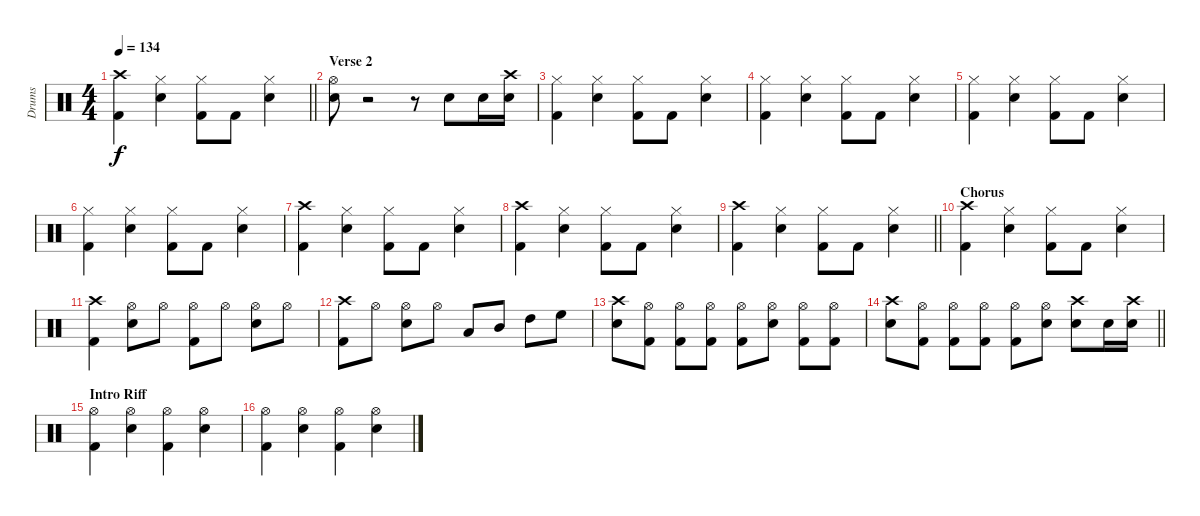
\track ("Drums" "Drums") {instrument percussion}
\staff {score}
\articulation defaults
\ts (4 4)
\tempo 134
\clef neutral
\barLineRight lightlight
\ks c
("Crash high (hit)" "Kick (hit) 2").4{dy f} ("Hi-Hat (closed)" "Snare (hit) 2").4 ("Hi-Hat (closed)" "Kick (hit) 2").8 "Kick (hit) 2".8 ("Hi-Hat (closed)" "Snare (hit) 2").4 |
\section ("" "Verse 2")
("Hi-Hat (open)" "Snare (hit) 2").8 r.2 r.8 "Snare (hit) 2".8 "Snare (hit) 2".16 ("Crash high (hit)" "Snare (hit) 2").16 |
("Hi-Hat (closed)" "Kick (hit) 2").4 ("Hi-Hat (closed)" "Snare (hit) 2").4 ("Hi-Hat (closed)" "Kick (hit) 2").8 "Kick (hit) 2".8 ("Hi-Hat (closed)" "Snare (hit) 2").4 |
("Hi-Hat (closed)" "Kick (hit) 2").4 ("Hi-Hat (closed)" "Snare (hit) 2").4 ("Hi-Hat (closed)" "Kick (hit) 2").8 "Kick (hit) 2".8 ("Hi-Hat (closed)" "Snare (hit) 2").4 |
("Hi-Hat (closed)" "Kick (hit) 2").4 ("Hi-Hat (closed)" "Snare (hit) 2").4 ("Hi-Hat (closed)" "Kick (hit) 2").8 "Kick (hit) 2".8 ("Hi-Hat (closed)" "Snare (hit) 2").4 |
("Hi-Hat (closed)" "Kick (hit) 2").4 ("Hi-Hat (closed)" "Snare (hit) 2").4 ("Hi-Hat (closed)" "Kick (hit) 2").8 "Kick (hit) 2".8 ("Hi-Hat (closed)" "Snare (hit) 2").4 |
("Crash high (hit)" "Kick (hit) 2").4 ("Hi-Hat (closed)" "Snare (hit) 2").4 ("Hi-Hat (closed)" "Kick (hit) 2").8 "Kick (hit) 2".8 ("Hi-Hat (closed)" "Snare (hit) 2").4 |
("Crash high (hit)" "Kick (hit) 2").4 ("Hi-Hat (closed)" "Snare (hit) 2").4 ("Hi-Hat (closed)" "Kick (hit) 2").8 "Kick (hit) 2".8 ("Hi-Hat (closed)" "Snare (hit) 2").4 |
\barLineRight lightlight
("Crash high (hit)" "Kick (hit) 2").4 ("Hi-Hat (closed)" "Snare (hit) 2").4 ("Hi-Hat (closed)" "Kick (hit) 2").8 "Kick (hit) 2".8 ("Hi-Hat (closed)" "Snare (hit) 2").4 |
\section ("" "Chorus")
("Crash high (hit)" "Kick (hit) 2").4 ("Hi-Hat (closed)" "Snare (hit) 2").4 ("Hi-Hat (closed)" "Kick (hit) 2").8 "Kick (hit) 2".8 ("Hi-Hat (closed)" "Snare (hit) 2").4 |
("Crash high (hit)" "Kick (hit) 2").4 ("Hi-Hat (open)" "Snare (hit) 2").8 "Hi-Hat (open)".8 ("Hi-Hat (open)" "Kick (hit) 2").8 "Hi-Hat (open)".8 ("Hi-Hat (open)" "Snare (hit) 2").8 "Hi-Hat (open)".8 |
("Crash high (hit)" "Kick (hit) 2").8 "Hi-Hat (open)".8 ("Hi-Hat (open)" "Snare (hit) 2").8 "Hi-Hat (open)".8 "Low Tom (hit)".8 "Mid Tom (hit)".8 "High Tom (hit)".8 "High Floor Tom (hit)".8 |
("Crash high (hit)" "Snare (hit) 2").8 ("Hi-Hat (open)" "Kick (hit) 2").8 ("Hi-Hat (open)" "Kick (hit) 2").8 ("Hi-Hat (open)" "Kick (hit) 2").8 ("Hi-Hat (open)" "Kick (hit) 2").8 ("Hi-Hat (open)" "Snare (hit) 2").8 ("Hi-Hat (open)" "Kick (hit) 2").8 ("Hi-Hat (open)" "Kick (hit) 2").8 |
\barLineRight lightlight
("Crash high (hit)" "Snare (hit) 2").8 ("Hi-Hat (open)" "Kick (hit) 2").8 ("Hi-Hat (open)" "Kick (hit) 2").8 ("Hi-Hat (open)" "Kick (hit) 2").8 ("Hi-Hat (open)" "Kick (hit) 2").8 ("Hi-Hat (open)" "Snare (hit) 2").8 ("Crash high (hit)" "Snare (hit) 2").8 "Snare (hit) 2".16 ("Crash high (hit)" "Snare (hit) 2").16 |
\section ("" "Intro Riff")
("Hi-Hat (open)" "Kick (hit) 2").4 ("Hi-Hat (open)" "Snare (hit) 2").4 ("Hi-Hat (open)" "Kick (hit) 2").4 ("Hi-Hat (open)" "Snare (hit) 2").4 |
("Hi-Hat (open)" "Kick (hit) 2").4 ("Hi-Hat (open)" "Snare (hit) 2").4 ("Hi-Hat (open)" "Kick (hit) 2").4 ("Hi-Hat (open)" "Snare (hit) 2").4
